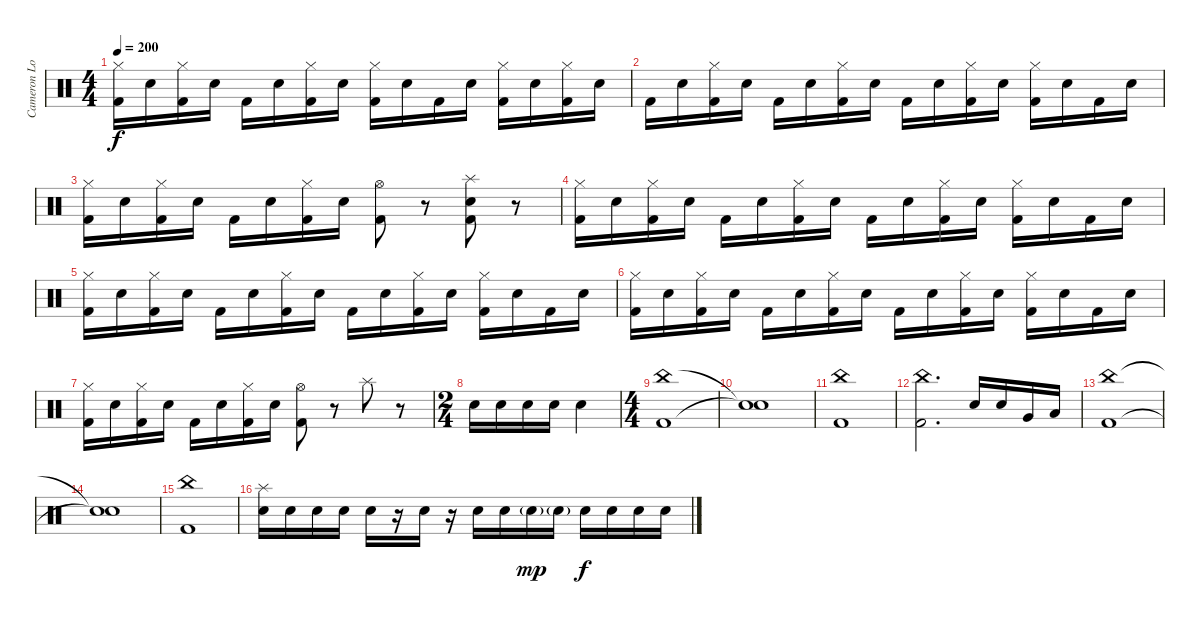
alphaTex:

\track ("Cameron Losch - drums" "Cameron Lo") {instrument percussion}
\staff {score}
\articulation defaults
\ts (4 4)
\tempo 200
\clef neutral
\ks c
("Hi-Hat (closed)" "Kick (hit) 2").16{dy f} "Electric Snare (hit)".16 ("Hi-Hat (closed)" "Kick (hit) 2").16 "Electric Snare (hit)".16 "Kick (hit) 2".16 "Electric Snare (hit)".16 ("Hi-Hat (closed)" "Kick (hit) 2").16 "Electric Snare (hit)".16 ("Hi-Hat (closed)" "Kick (hit) 2").16 "Electric Snare (hit)".16 "Kick (hit) 2".16 "Electric Snare (hit)".16 ("Hi-Hat (closed)" "Kick (hit) 2").16 "Electric Snare (hit)".16 ("Hi-Hat (closed)" "Kick (hit) 2").16 "Electric Snare (hit)".16 |
"Kick (hit) 2".16 "Electric Snare (hit)".16 ("Hi-Hat (closed)" "Kick (hit) 2").16 "Electric Snare (hit)".16 "Kick (hit) 2".16 "Electric Snare (hit)".16 ("Hi-Hat (closed)" "Kick (hit) 2").16 "Electric Snare (hit)".16 "Kick (hit) 2".16 "Electric Snare (hit)".16 ("Hi-Hat (closed)" "Kick (hit) 2").16 "Electric Snare (hit)".16 ("Hi-Hat (closed)" "Kick (hit) 2").16 "Electric Snare (hit)".16 "Kick (hit) 2".16 "Electric Snare (hit)".16 |
("Hi-Hat (closed)" "Kick (hit) 2").16 "Electric Snare (hit)".16 ("Hi-Hat (closed)" "Kick (hit) 2").16 "Electric Snare (hit)".16 "Kick (hit) 2".16 "Electric Snare (hit)".16 ("Hi-Hat (closed)" "Kick (hit) 2").16 "Electric Snare (hit)".16 ("Hi-Hat (open)" "Kick (hit) 2").8 r.8 ("Splash (hit)" "Electric Snare (hit)" "Kick (hit) 2").8 r.8 |
("Hi-Hat (closed)" "Kick (hit) 2").16 "Electric Snare (hit)".16 ("Hi-Hat (closed)" "Kick (hit) 2").16 "Electric Snare (hit)".16 "Kick (hit) 2".16 "Electric Snare (hit)".16 ("Hi-Hat (closed)" "Kick (hit) 2").16 "Electric Snare (hit)".16 "Kick (hit) 2".16 "Electric Snare (hit)".16 ("Hi-Hat (closed)" "Kick (hit) 2").16 "Electric Snare (hit)".16 ("Hi-Hat (closed)" "Kick (hit) 2").16 "Electric Snare (hit)".16 "Kick (hit) 2".16 "Electric Snare (hit)".16 |
("Hi-Hat (closed)" "Kick (hit) 2").16 "Electric Snare (hit)".16 ("Hi-Hat (closed)" "Kick (hit) 2").16 "Electric Snare (hit)".16 "Kick (hit) 2".16 "Electric Snare (hit)".16 ("Hi-Hat (closed)" "Kick (hit) 2").16 "Electric Snare (hit)".16 "Kick (hit) 2".16 "Electric Snare (hit)".16 ("Hi-Hat (closed)" "Kick (hit) 2").16 "Electric Snare (hit)".16 ("Hi-Hat (closed)" "Kick (hit) 2").16 "Electric Snare (hit)".16 "Kick (hit) 2".16 "Electric Snare (hit)".16 |
("Hi-Hat (closed)" "Kick (hit) 2").16 "Electric Snare (hit)".16 ("Hi-Hat (closed)" "Kick (hit) 2").16 "Electric Snare (hit)".16 "Kick (hit) 2".16 "Electric Snare (hit)".16 ("Hi-Hat (closed)" "Kick (hit) 2").16 "Electric Snare (hit)".16 "Kick (hit) 2".16 "Electric Snare (hit)".16 ("Hi-Hat (closed)" "Kick (hit) 2").16 "Electric Snare (hit)".16 ("Hi-Hat (closed)" "Kick (hit) 2").16 "Electric Snare (hit)".16 "Kick (hit) 2".16 "Electric Snare (hit)".16 |
("Hi-Hat (closed)" "Kick (hit) 2").16 "Electric Snare (hit)".16 ("Hi-Hat (closed)" "Kick (hit) 2").16 "Electric Snare (hit)".16 "Kick (hit) 2".16 "Electric Snare (hit)".16 ("Hi-Hat (closed)" "Kick (hit) 2").16 "Electric Snare (hit)".16 ("Hi-Hat (open)" "Kick (hit) 2").8 r.8 "Splash (hit)".8 r.8 |
\ts (2 4)
"Electric Snare (hit)".16 "Electric Snare (hit)".16 "Electric Snare (hit)".16 "Electric Snare (hit)".16 "Electric Snare (hit)".4 |
\ts (4 4)
("China (hit)" "Kick (hit) 2").1 |
("Snare (hit)"{t} "Snare (hit)"{t}).1 |
("China (hit)" "Kick (hit) 2").1 |
("China (hit)" "Kick (hit) 2").2{d} "Electric Snare (hit)".16 "Electric Snare (hit)".16 "Very Low Tom (hit)".16 "Low Floor Tom (hit)".16 |
("China (hit)" "Kick (hit) 2").1 |
("Snare (hit)"{t} "Snare (hit)"{t}).1 |
("China (hit)" "Kick (hit) 2").1 |
("Splash (hit)" "Electric Snare (hit)").16 "Electric Snare (hit)".16 "Electric Snare (hit)".16 "Electric Snare (hit)".16 "Electric Snare (hit)".16 r.16 "Electric Snare (hit)".16 r.16 "Electric Snare (hit)".16 "Electric Snare (hit)".16 "Electric Snare (hit)"{g}.16{dy mp} "Electric Snare (hit)"{g}.16 "Electric Snare (hit)".16{dy f} "Electric Snare (hit)".16 "Electric Snare (hit)".16 "Electric Snare (hit)".16
